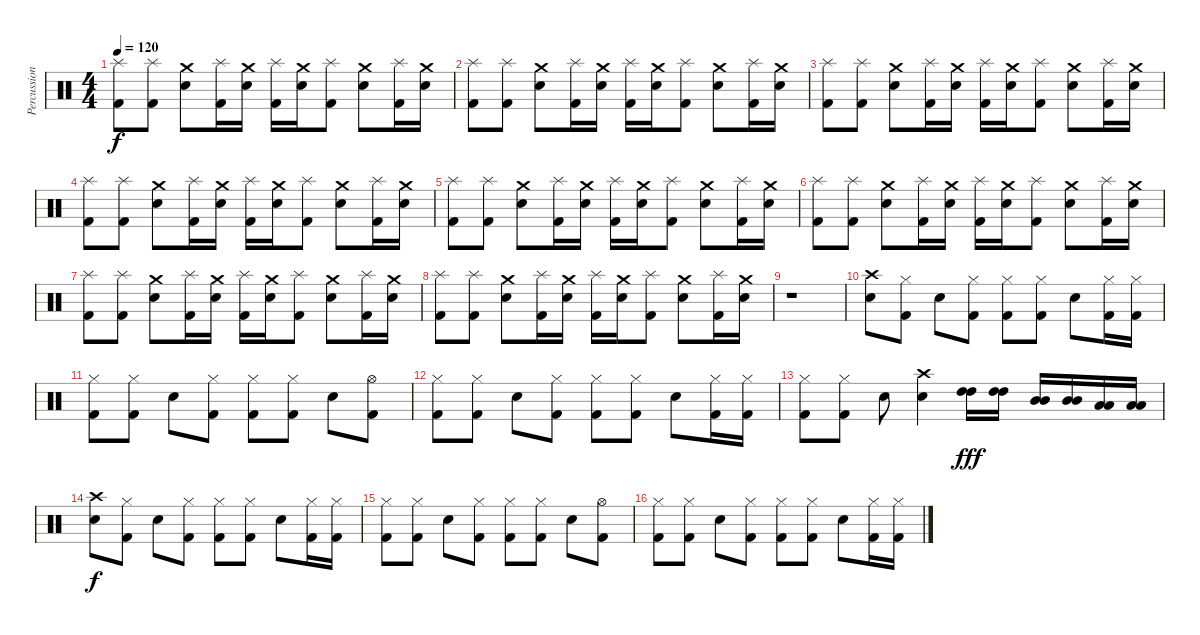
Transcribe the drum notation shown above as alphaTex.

\track ("Percussions" "Percussion") {instrument percussion}
\staff {score}
\articulation defaults
\ts (4 4)
\tempo 120
\clef neutral
\ks c
("Splash (hit)" "Kick (hit) 2").8{dy f} ("Splash (hit)" "Kick (hit) 2").8 ("Crash medium (hit)" "Snare (hit) 2").8 ("Splash (hit)" "Kick (hit) 2").16 ("Crash medium (hit)" "Snare (hit) 2").16 ("Splash (hit)" "Kick (hit) 2").16 ("Crash medium (hit)" "Snare (hit) 2").16 ("Splash (hit)" "Kick (hit) 2").8 ("Crash medium (hit)" "Snare (hit) 2").8 ("Splash (hit)" "Kick (hit) 2").16 ("Crash medium (hit)" "Snare (hit) 2").16 |
("Splash (hit)" "Kick (hit) 2").8 ("Splash (hit)" "Kick (hit) 2").8 ("Crash medium (hit)" "Snare (hit) 2").8 ("Splash (hit)" "Kick (hit) 2").16 ("Crash medium (hit)" "Snare (hit) 2").16 ("Splash (hit)" "Kick (hit) 2").16 ("Crash medium (hit)" "Snare (hit) 2").16 ("Splash (hit)" "Kick (hit) 2").8 ("Crash medium (hit)" "Snare (hit) 2").8 ("Splash (hit)" "Kick (hit) 2").16 ("Crash medium (hit)" "Snare (hit) 2").16 |
("Splash (hit)" "Kick (hit) 2").8 ("Splash (hit)" "Kick (hit) 2").8 ("Crash medium (hit)" "Snare (hit) 2").8 ("Splash (hit)" "Kick (hit) 2").16 ("Crash medium (hit)" "Snare (hit) 2").16 ("Splash (hit)" "Kick (hit) 2").16 ("Crash medium (hit)" "Snare (hit) 2").16 ("Splash (hit)" "Kick (hit) 2").8 ("Crash medium (hit)" "Snare (hit) 2").8 ("Splash (hit)" "Kick (hit) 2").16 ("Crash medium (hit)" "Snare (hit) 2").16 |
("Splash (hit)" "Kick (hit) 2").8 ("Splash (hit)" "Kick (hit) 2").8 ("Crash medium (hit)" "Snare (hit) 2").8 ("Splash (hit)" "Kick (hit) 2").16 ("Crash medium (hit)" "Snare (hit) 2").16 ("Splash (hit)" "Kick (hit) 2").16 ("Crash medium (hit)" "Snare (hit) 2").16 ("Splash (hit)" "Kick (hit) 2").8 ("Crash medium (hit)" "Snare (hit) 2").8 ("Splash (hit)" "Kick (hit) 2").16 ("Crash medium (hit)" "Snare (hit) 2").16 |
("Splash (hit)" "Kick (hit) 2").8 ("Splash (hit)" "Kick (hit) 2").8 ("Crash medium (hit)" "Snare (hit) 2").8 ("Splash (hit)" "Kick (hit) 2").16 ("Crash medium (hit)" "Snare (hit) 2").16 ("Splash (hit)" "Kick (hit) 2").16 ("Crash medium (hit)" "Snare (hit) 2").16 ("Splash (hit)" "Kick (hit) 2").8 ("Crash medium (hit)" "Snare (hit) 2").8 ("Splash (hit)" "Kick (hit) 2").16 ("Crash medium (hit)" "Snare (hit) 2").16 |
("Splash (hit)" "Kick (hit) 2").8 ("Splash (hit)" "Kick (hit) 2").8 ("Crash medium (hit)" "Snare (hit) 2").8 ("Splash (hit)" "Kick (hit) 2").16 ("Crash medium (hit)" "Snare (hit) 2").16 ("Splash (hit)" "Kick (hit) 2").16 ("Crash medium (hit)" "Snare (hit) 2").16 ("Splash (hit)" "Kick (hit) 2").8 ("Crash medium (hit)" "Snare (hit) 2").8 ("Splash (hit)" "Kick (hit) 2").16 ("Crash medium (hit)" "Snare (hit) 2").16 |
("Splash (hit)" "Kick (hit) 2").8 ("Splash (hit)" "Kick (hit) 2").8 ("Crash medium (hit)" "Snare (hit) 2").8 ("Splash (hit)" "Kick (hit) 2").16 ("Crash medium (hit)" "Snare (hit) 2").16 ("Splash (hit)" "Kick (hit) 2").16 ("Crash medium (hit)" "Snare (hit) 2").16 ("Splash (hit)" "Kick (hit) 2").8 ("Crash medium (hit)" "Snare (hit) 2").8 ("Splash (hit)" "Kick (hit) 2").16 ("Crash medium (hit)" "Snare (hit) 2").16 |
("Splash (hit)" "Kick (hit) 2").8 ("Splash (hit)" "Kick (hit) 2").8 ("Crash medium (hit)" "Snare (hit) 2").8 ("Splash (hit)" "Kick (hit) 2").16 ("Crash medium (hit)" "Snare (hit) 2").16 ("Splash (hit)" "Kick (hit) 2").16 ("Crash medium (hit)" "Snare (hit) 2").16 ("Splash (hit)" "Kick (hit) 2").8 ("Crash medium (hit)" "Snare (hit) 2").8 ("Splash (hit)" "Kick (hit) 2").16 ("Crash medium (hit)" "Snare (hit) 2").16 |
r.1 |
("Crash high (hit)" "Snare (hit) 2").8 ("Hi-Hat (closed)" "Kick (hit) 2").8 "Snare (hit) 2".8 ("Hi-Hat (closed)" "Kick (hit) 2").8 ("Hi-Hat (closed)" "Kick (hit) 2").8 ("Hi-Hat (closed)" "Kick (hit) 2").8 "Snare (hit) 2".8 ("Hi-Hat (closed)" "Kick (hit) 2").16 ("Hi-Hat (closed)" "Kick (hit) 2").16 |
("Hi-Hat (closed)" "Kick (hit) 2").8 ("Hi-Hat (closed)" "Kick (hit) 2").8 "Snare (hit) 2".8 ("Hi-Hat (closed)" "Kick (hit) 2").8 ("Hi-Hat (closed)" "Kick (hit) 2").8 ("Hi-Hat (closed)" "Kick (hit) 2").8 "Snare (hit) 2".8 ("Hi-Hat (open)" "Kick (hit) 2").8 |
("Hi-Hat (closed)" "Kick (hit) 2").8 ("Hi-Hat (closed)" "Kick (hit) 2").8 "Snare (hit) 2".8 ("Hi-Hat (closed)" "Kick (hit) 2").8 ("Hi-Hat (closed)" "Kick (hit) 2").8 ("Hi-Hat (closed)" "Kick (hit) 2").8 "Snare (hit) 2".8 ("Hi-Hat (closed)" "Kick (hit) 2").16 ("Hi-Hat (closed)" "Kick (hit) 2").16 |
("Hi-Hat (closed)" "Kick (hit) 2").8 ("Hi-Hat (closed)" "Kick (hit) 2").8 "Snare (hit) 2".8 ("Crash high (hit)" "Snare (hit) 2").4 ("High Tom (hit)" "High Tom (hit)").16{dy fff} ("High Tom (hit)" "High Tom (hit)").16 ("Mid Tom (hit)" "Mid Tom (hit)").16 ("Mid Tom (hit)" "Mid Tom (hit)").16 ("Low Tom (hit)" "Low Tom (hit)").16 ("Low Tom (hit)" "Low Tom (hit)").16 |
("Crash high (hit)" "Snare (hit) 2").8{dy f} ("Hi-Hat (closed)" "Kick (hit) 2").8 "Snare (hit) 2".8 ("Hi-Hat (closed)" "Kick (hit) 2").8 ("Hi-Hat (closed)" "Kick (hit) 2").8 ("Hi-Hat (closed)" "Kick (hit) 2").8 "Snare (hit) 2".8 ("Hi-Hat (closed)" "Kick (hit) 2").16 ("Hi-Hat (closed)" "Kick (hit) 2").16 |
("Hi-Hat (closed)" "Kick (hit) 2").8 ("Hi-Hat (closed)" "Kick (hit) 2").8 "Snare (hit) 2".8 ("Hi-Hat (closed)" "Kick (hit) 2").8 ("Hi-Hat (closed)" "Kick (hit) 2").8 ("Hi-Hat (closed)" "Kick (hit) 2").8 "Snare (hit) 2".8 ("Hi-Hat (open)" "Kick (hit) 2").8 |
("Hi-Hat (closed)" "Kick (hit) 2").8 ("Hi-Hat (closed)" "Kick (hit) 2").8 "Snare (hit) 2".8 ("Hi-Hat (closed)" "Kick (hit) 2").8 ("Hi-Hat (closed)" "Kick (hit) 2").8 ("Hi-Hat (closed)" "Kick (hit) 2").8 "Snare (hit) 2".8 ("Hi-Hat (closed)" "Kick (hit) 2").16 ("Hi-Hat (closed)" "Kick (hit) 2").16
